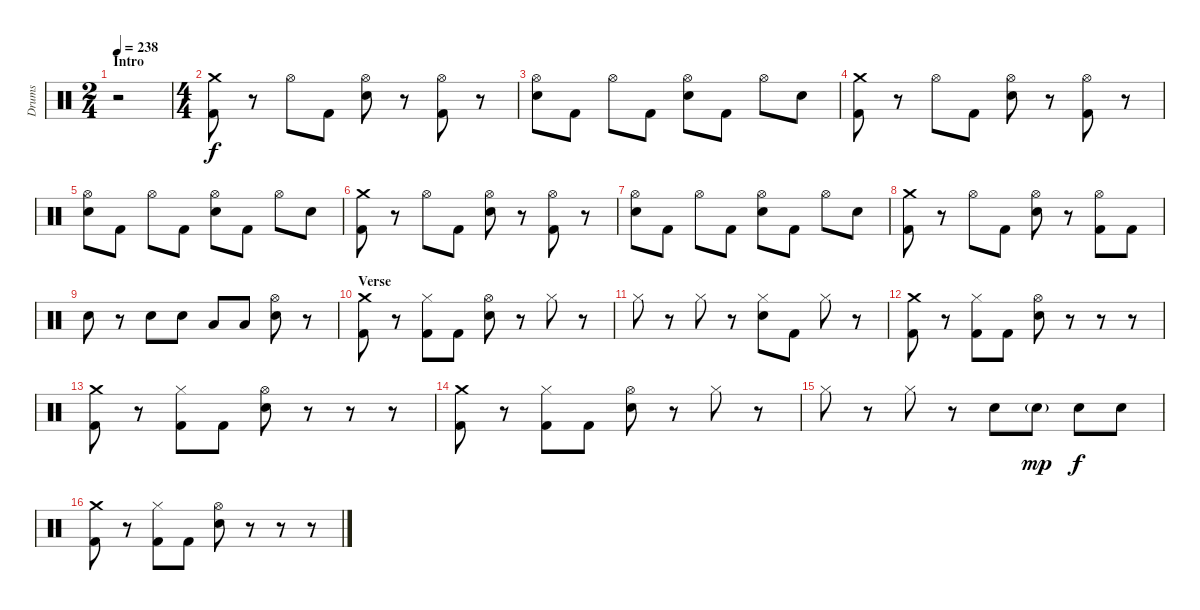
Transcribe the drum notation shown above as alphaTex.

\track ("Drums" "Drums") {instrument percussion}
\staff {score}
\articulation defaults
\ts (2 4)
\section ("" "Intro")
\tempo 238
\clef neutral
\ks c
r.2{dy f} |
\ts (4 4)
("Crash medium (hit)" "Kick (hit) 2").8 r.8 "Hi-Hat (open)".8 "Kick (hit) 2".8 ("Hi-Hat (open)" "Electric Snare (hit)").8 r.8 ("Hi-Hat (open)" "Kick (hit) 2").8 r.8 |
("Hi-Hat (open)" "Electric Snare (hit)").8 "Kick (hit) 2".8 "Hi-Hat (open)".8 "Kick (hit) 2".8 ("Hi-Hat (open)" "Electric Snare (hit)").8 "Kick (hit) 2".8 "Hi-Hat (open)".8 "Electric Snare (hit)".8 |
("Crash medium (hit)" "Kick (hit) 2").8 r.8 "Hi-Hat (open)".8 "Kick (hit) 2".8 ("Hi-Hat (open)" "Electric Snare (hit)").8 r.8 ("Hi-Hat (open)" "Kick (hit) 2").8 r.8 |
("Hi-Hat (open)" "Electric Snare (hit)").8 "Kick (hit) 2".8 "Hi-Hat (open)".8 "Kick (hit) 2".8 ("Hi-Hat (open)" "Electric Snare (hit)").8 "Kick (hit) 2".8 "Hi-Hat (open)".8 "Electric Snare (hit)".8 |
("Crash medium (hit)" "Kick (hit) 2").8 r.8 "Hi-Hat (open)".8 "Kick (hit) 2".8 ("Hi-Hat (open)" "Electric Snare (hit)").8 r.8 ("Hi-Hat (open)" "Kick (hit) 2").8 r.8 |
("Hi-Hat (open)" "Electric Snare (hit)").8 "Kick (hit) 2".8 "Hi-Hat (open)".8 "Kick (hit) 2".8 ("Hi-Hat (open)" "Electric Snare (hit)").8 "Kick (hit) 2".8 "Hi-Hat (open)".8 "Electric Snare (hit)".8 |
("Crash medium (hit)" "Kick (hit) 2").8 r.8 "Hi-Hat (open)".8 "Kick (hit) 2".8 ("Hi-Hat (open)" "Electric Snare (hit)").8 r.8 ("Hi-Hat (open)" "Kick (hit) 2").8 "Kick (hit) 2".8 |
"Electric Snare (hit)".8 r.8 "Electric Snare (hit)".8 "Electric Snare (hit)".8 "Low Tom (hit)".8 "Low Tom (hit)".8 ("Hi-Hat (open)" "Electric Snare (hit)").8 r.8 |
\section ("" "Verse")
("Crash medium (hit)" "Kick (hit) 2").8 r.8 ("Hi-Hat (closed)" "Kick (hit) 2").8 "Kick (hit) 2".8 ("Hi-Hat (open)" "Electric Snare (hit)").8 r.8 "Hi-Hat (closed)".8 r.8 |
"Hi-Hat (closed)".8 r.8 "Hi-Hat (closed)".8 r.8 ("Hi-Hat (closed)" "Electric Snare (hit)").8 "Kick (hit) 2".8 "Hi-Hat (closed)".8 r.8 |
("Crash medium (hit)" "Kick (hit) 2").8 r.8 ("Hi-Hat (closed)" "Kick (hit) 2").8 "Kick (hit) 2".8 ("Hi-Hat (open)" "Electric Snare (hit)").8 r.8 r.8 r.8 |
("Crash medium (hit)" "Kick (hit) 2").8 r.8 ("Hi-Hat (closed)" "Kick (hit) 2").8 "Kick (hit) 2".8 ("Hi-Hat (open)" "Electric Snare (hit)").8 r.8 r.8 r.8 |
("Crash medium (hit)" "Kick (hit) 2").8 r.8 ("Hi-Hat (closed)" "Kick (hit) 2").8 "Kick (hit) 2".8 ("Hi-Hat (open)" "Electric Snare (hit)").8 r.8 "Hi-Hat (closed)".8 r.8 |
"Hi-Hat (closed)".8 r.8 "Hi-Hat (closed)".8 r.8 "Electric Snare (hit)".8 "Electric Snare (hit)"{g}.8{dy mp} "Electric Snare (hit)".8{dy f} "Electric Snare (hit)".8 |
("Crash medium (hit)" "Kick (hit) 2").8 r.8 ("Hi-Hat (closed)" "Kick (hit) 2").8 "Kick (hit) 2".8 ("Hi-Hat (open)" "Electric Snare (hit)").8 r.8 r.8 r.8
